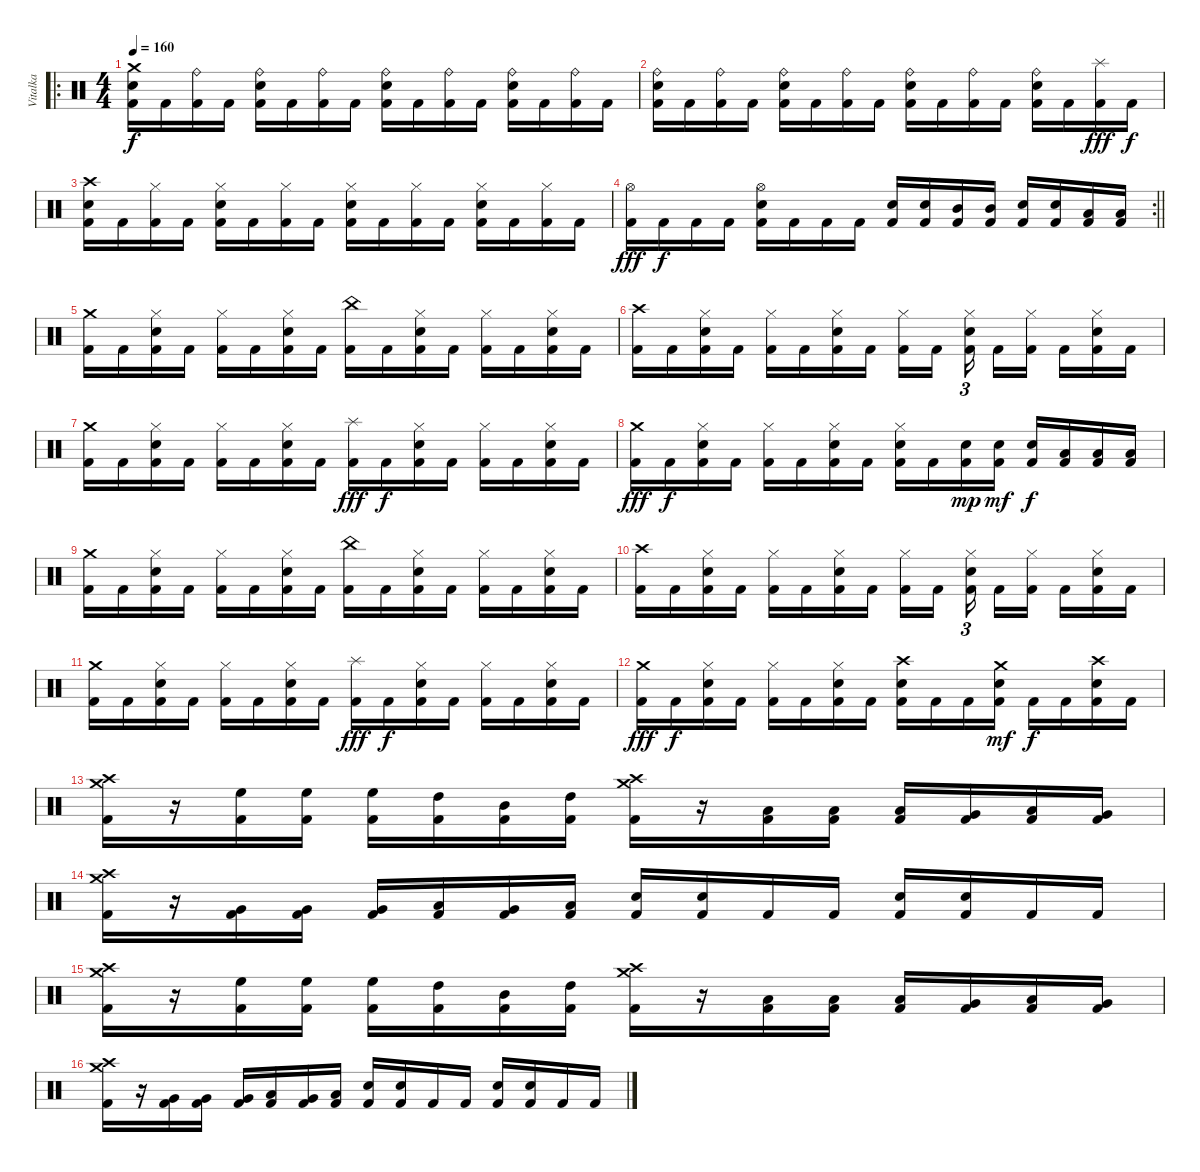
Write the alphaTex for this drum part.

\track ("Vitalka" "Vitalka") {instrument percussion}
\staff {score}
\articulation defaults
\ro
\ts (4 4)
\tempo 160
\clef neutral
\ks c
("Crash medium (hit)" "Snare (hit) 2" "Kick (hit) 2").16{dy f} "Kick (hit) 2".16 ("Ride (bell)" "Kick (hit) 2").16 "Kick (hit) 2".16 ("Ride (bell)" "Snare (hit) 2" "Kick (hit) 2").16 "Kick (hit) 2".16 ("Ride (bell)" "Kick (hit) 2").16 "Kick (hit) 2".16 ("Ride (bell)" "Snare (hit) 2" "Kick (hit) 2").16 "Kick (hit) 2".16 ("Ride (bell)" "Kick (hit) 2").16 "Kick (hit) 2".16 ("Ride (bell)" "Snare (hit) 2" "Kick (hit) 2").16 "Kick (hit) 2".16 ("Ride (bell)" "Kick (hit) 2").16 "Kick (hit) 2".16 |
("Ride (bell)" "Snare (hit) 2" "Kick (hit) 2").16 "Kick (hit) 2".16 ("Ride (bell)" "Kick (hit) 2").16 "Kick (hit) 2".16 ("Ride (bell)" "Snare (hit) 2" "Kick (hit) 2").16 "Kick (hit) 2".16 ("Ride (bell)" "Kick (hit) 2").16 "Kick (hit) 2".16 ("Ride (bell)" "Snare (hit) 2" "Kick (hit) 2").16 "Kick (hit) 2".16 ("Ride (bell)" "Kick (hit) 2").16 "Kick (hit) 2".16 ("Ride (bell)" "Snare (hit) 2" "Kick (hit) 2").16 "Kick (hit) 2".16 ("Splash (hit)" "Kick (hit) 2").16{dy fff} "Kick (hit) 2".16{dy f} |
("Crash high (hit)" "Snare (hit) 2" "Kick (hit) 2").16 "Kick (hit) 2".16 ("Hi-Hat (closed)" "Kick (hit) 2").16 "Kick (hit) 2".16 ("Hi-Hat (closed)" "Snare (hit) 2" "Kick (hit) 2").16 "Kick (hit) 2".16 ("Hi-Hat (closed)" "Kick (hit) 2").16 "Kick (hit) 2".16 ("Hi-Hat (closed)" "Snare (hit) 2" "Kick (hit) 2").16 "Kick (hit) 2".16 ("Hi-Hat (closed)" "Kick (hit) 2").16 "Kick (hit) 2".16 ("Hi-Hat (closed)" "Snare (hit) 2" "Kick (hit) 2").16 "Kick (hit) 2".16 ("Hi-Hat (closed)" "Kick (hit) 2").16 "Kick (hit) 2".16 |
\rc 2
\barLineRight lightlight
("Hi-Hat (open)" "Kick (hit) 2").16{dy fff} "Kick (hit) 2".16{dy f} "Kick (hit) 2".16 "Kick (hit) 2".16 ("Hi-Hat (open)" "Snare (hit) 2" "Kick (hit) 2").16 "Kick (hit) 2".16 "Kick (hit) 2".16 "Kick (hit) 2".16 ("Snare (hit) 2" "Kick (hit) 2").16 ("Snare (hit) 2" "Kick (hit) 2").16 ("Mid Tom (hit)" "Kick (hit) 2").16 ("Mid Tom (hit)" "Kick (hit) 2").16 ("Snare (hit) 2" "Kick (hit) 2").16 ("Snare (hit) 2" "Kick (hit) 2").16 ("Low Tom (hit)" "Kick (hit) 2").16 ("Low Tom (hit)" "Kick (hit) 2").16 |
("Crash medium (hit)" "Kick (hit) 2").16 "Kick (hit) 2".16 ("Hi-Hat (closed)" "Snare (hit) 2" "Kick (hit) 2").16 "Kick (hit) 2".16 ("Hi-Hat (closed)" "Kick (hit) 2").16 "Kick (hit) 2".16 ("Hi-Hat (closed)" "Snare (hit) 2" "Kick (hit) 2").16 "Kick (hit) 2".16 ("China (hit)" "Kick (hit) 2").16 "Kick (hit) 2".16 ("Hi-Hat (closed)" "Snare (hit) 2" "Kick (hit) 2").16 "Kick (hit) 2".16 ("Hi-Hat (closed)" "Kick (hit) 2").16 "Kick (hit) 2".16 ("Hi-Hat (closed)" "Snare (hit) 2" "Kick (hit) 2").16 "Kick (hit) 2".16 |
("Crash high (hit)" "Kick (hit) 2").16 "Kick (hit) 2".16 ("Hi-Hat (closed)" "Snare (hit) 2" "Kick (hit) 2").16 "Kick (hit) 2".16 ("Hi-Hat (closed)" "Kick (hit) 2").16 "Kick (hit) 2".16 ("Hi-Hat (closed)" "Snare (hit) 2" "Kick (hit) 2").16 "Kick (hit) 2".16 ("Hi-Hat (closed)" "Kick (hit) 2").16 "Kick (hit) 2".16{beam splitsecondary} ("Hi-Hat (closed)" "Snare (hit) 2" "Kick (hit) 2").16{tu (3 2) beam splitsecondary} "Kick (hit) 2".16 ("Hi-Hat (closed)" "Kick (hit) 2").16 "Kick (hit) 2".16 ("Hi-Hat (closed)" "Snare (hit) 2" "Kick (hit) 2").16 "Kick (hit) 2".16 |
("Crash medium (hit)" "Kick (hit) 2").16 "Kick (hit) 2".16 ("Hi-Hat (closed)" "Snare (hit) 2" "Kick (hit) 2").16 "Kick (hit) 2".16 ("Hi-Hat (closed)" "Kick (hit) 2").16 "Kick (hit) 2".16 ("Hi-Hat (closed)" "Snare (hit) 2" "Kick (hit) 2").16 "Kick (hit) 2".16 ("Splash (hit)" "Kick (hit) 2").16{dy fff} "Kick (hit) 2".16{dy f} ("Hi-Hat (closed)" "Snare (hit) 2" "Kick (hit) 2").16 "Kick (hit) 2".16 ("Hi-Hat (closed)" "Kick (hit) 2").16 "Kick (hit) 2".16 ("Hi-Hat (closed)" "Snare (hit) 2" "Kick (hit) 2").16 "Kick (hit) 2".16 |
("Crash medium (hit)" "Kick (hit) 2").16{dy fff} "Kick (hit) 2".16{dy f} ("Hi-Hat (closed)" "Snare (hit) 2" "Kick (hit) 2").16 "Kick (hit) 2".16 ("Hi-Hat (closed)" "Kick (hit) 2").16 "Kick (hit) 2".16 ("Hi-Hat (closed)" "Snare (hit) 2" "Kick (hit) 2").16 "Kick (hit) 2".16 ("Hi-Hat (closed)" "Snare (hit) 2" "Kick (hit) 2").16 "Kick (hit) 2".16 ("Snare (hit) 2" "Kick (hit) 2").16{dy mp} ("Snare (hit) 2" "Kick (hit) 2").16{dy mf} ("Snare (hit) 2" "Kick (hit) 2").16{dy f} ("Low Tom (hit)" "Kick (hit) 2").16 ("Low Tom (hit)" "Kick (hit) 2").16 ("Low Floor Tom (hit)" "Kick (hit) 2").16 |
("Crash medium (hit)" "Kick (hit) 2").16 "Kick (hit) 2".16 ("Hi-Hat (closed)" "Snare (hit) 2" "Kick (hit) 2").16 "Kick (hit) 2".16 ("Hi-Hat (closed)" "Kick (hit) 2").16 "Kick (hit) 2".16 ("Hi-Hat (closed)" "Snare (hit) 2" "Kick (hit) 2").16 "Kick (hit) 2".16 ("China (hit)" "Kick (hit) 2").16 "Kick (hit) 2".16 ("Hi-Hat (closed)" "Snare (hit) 2" "Kick (hit) 2").16 "Kick (hit) 2".16 ("Hi-Hat (closed)" "Kick (hit) 2").16 "Kick (hit) 2".16 ("Hi-Hat (closed)" "Snare (hit) 2" "Kick (hit) 2").16 "Kick (hit) 2".16 |
("Crash high (hit)" "Kick (hit) 2").16 "Kick (hit) 2".16 ("Hi-Hat (closed)" "Snare (hit) 2" "Kick (hit) 2").16 "Kick (hit) 2".16 ("Hi-Hat (closed)" "Kick (hit) 2").16 "Kick (hit) 2".16 ("Hi-Hat (closed)" "Snare (hit) 2" "Kick (hit) 2").16 "Kick (hit) 2".16 ("Hi-Hat (closed)" "Kick (hit) 2").16 "Kick (hit) 2".16{beam splitsecondary} ("Hi-Hat (closed)" "Snare (hit) 2" "Kick (hit) 2").16{tu (3 2) beam splitsecondary} "Kick (hit) 2".16 ("Hi-Hat (closed)" "Kick (hit) 2").16 "Kick (hit) 2".16 ("Hi-Hat (closed)" "Snare (hit) 2" "Kick (hit) 2").16 "Kick (hit) 2".16 |
("Crash medium (hit)" "Kick (hit) 2").16 "Kick (hit) 2".16 ("Hi-Hat (closed)" "Snare (hit) 2" "Kick (hit) 2").16 "Kick (hit) 2".16 ("Hi-Hat (closed)" "Kick (hit) 2").16 "Kick (hit) 2".16 ("Hi-Hat (closed)" "Snare (hit) 2" "Kick (hit) 2").16 "Kick (hit) 2".16 ("Splash (hit)" "Kick (hit) 2").16{dy fff} "Kick (hit) 2".16{dy f} ("Hi-Hat (closed)" "Snare (hit) 2" "Kick (hit) 2").16 "Kick (hit) 2".16 ("Hi-Hat (closed)" "Kick (hit) 2").16 "Kick (hit) 2".16 ("Hi-Hat (closed)" "Snare (hit) 2" "Kick (hit) 2").16 "Kick (hit) 2".16 |
("Crash medium (hit)" "Kick (hit) 2").16{dy fff} "Kick (hit) 2".16{dy f} ("Hi-Hat (closed)" "Snare (hit) 2" "Kick (hit) 2").16 "Kick (hit) 2".16 ("Hi-Hat (closed)" "Kick (hit) 2").16 "Kick (hit) 2".16 ("Hi-Hat (closed)" "Snare (hit) 2" "Kick (hit) 2").16 "Kick (hit) 2".16 ("Crash high (hit)" "Snare (hit) 2" "Kick (hit) 2").16 "Kick (hit) 2".16 "Kick (hit) 2".16 ("Crash medium (hit)" "Snare (hit) 2" "Kick (hit) 2").16{dy mf} "Kick (hit) 2".16{dy f} "Kick (hit) 2".16 ("Crash high (hit)" "Snare (hit) 2" "Kick (hit) 2").16 "Kick (hit) 2".16 |
("Crash medium (hit)" "Crash high (hit)" "Kick (hit) 2").16 r.16 ("High Floor Tom (hit)" "Kick (hit) 2").16 ("High Floor Tom (hit)" "Kick (hit) 2").16 ("High Floor Tom (hit)" "Kick (hit) 2").16 ("High Tom (hit)" "Kick (hit) 2").16 ("Mid Tom (hit)" "Kick (hit) 2").16 ("High Tom (hit)" "Kick (hit) 2").16 ("Crash medium (hit)" "Crash high (hit)" "Kick (hit) 2").16 r.16 ("Low Tom (hit)" "Kick (hit) 2").16 ("Low Tom (hit)" "Kick (hit) 2").16 ("Low Tom (hit)" "Kick (hit) 2").16 ("Very Low Tom (hit)" "Kick (hit) 2").16 ("Low Floor Tom (hit)" "Kick (hit) 2").16 ("Very Low Tom (hit)" "Kick (hit) 2").16 |
("Crash medium (hit)" "Crash high (hit)" "Kick (hit) 2").16 r.16 ("Very Low Tom (hit)" "Kick (hit) 2").16 ("Very Low Tom (hit)" "Kick (hit) 2").16 ("Very Low Tom (hit)" "Kick (hit) 2").16 ("Low Floor Tom (hit)" "Kick (hit) 2").16 ("Very Low Tom (hit)" "Kick (hit) 2").16 ("Low Floor Tom (hit)" "Kick (hit) 2").16 ("Snare (hit) 2" "Kick (hit) 2").16 ("Snare (hit) 2" "Kick (hit) 2").16 "Kick (hit) 2".16 "Kick (hit) 2".16 ("Snare (hit) 2" "Kick (hit) 2").16 ("Snare (hit) 2" "Kick (hit) 2").16 "Kick (hit) 2".16 "Kick (hit) 2".16 |
("Crash medium (hit)" "Crash high (hit)" "Kick (hit) 2").16 r.16 ("High Floor Tom (hit)" "Kick (hit) 2").16 ("High Floor Tom (hit)" "Kick (hit) 2").16 ("High Floor Tom (hit)" "Kick (hit) 2").16 ("High Tom (hit)" "Kick (hit) 2").16 ("Mid Tom (hit)" "Kick (hit) 2").16 ("High Tom (hit)" "Kick (hit) 2").16 ("Crash medium (hit)" "Crash high (hit)" "Kick (hit) 2").16 r.16 ("Low Tom (hit)" "Kick (hit) 2").16 ("Low Tom (hit)" "Kick (hit) 2").16 ("Low Tom (hit)" "Kick (hit) 2").16 ("Very Low Tom (hit)" "Kick (hit) 2").16 ("Low Floor Tom (hit)" "Kick (hit) 2").16 ("Very Low Tom (hit)" "Kick (hit) 2").16 |
("Crash medium (hit)" "Crash high (hit)" "Kick (hit) 2").16 r.16 ("Very Low Tom (hit)" "Kick (hit) 2").16 ("Very Low Tom (hit)" "Kick (hit) 2").16 ("Very Low Tom (hit)" "Kick (hit) 2").16 ("Low Floor Tom (hit)" "Kick (hit) 2").16 ("Very Low Tom (hit)" "Kick (hit) 2").16 ("Low Floor Tom (hit)" "Kick (hit) 2").16 ("Snare (hit) 2" "Kick (hit) 2").16 ("Snare (hit) 2" "Kick (hit) 2").16 "Kick (hit) 2".16 "Kick (hit) 2".16 ("Snare (hit) 2" "Kick (hit) 2").16 ("Snare (hit) 2" "Kick (hit) 2").16 "Kick (hit) 2".16 "Kick (hit) 2".16
